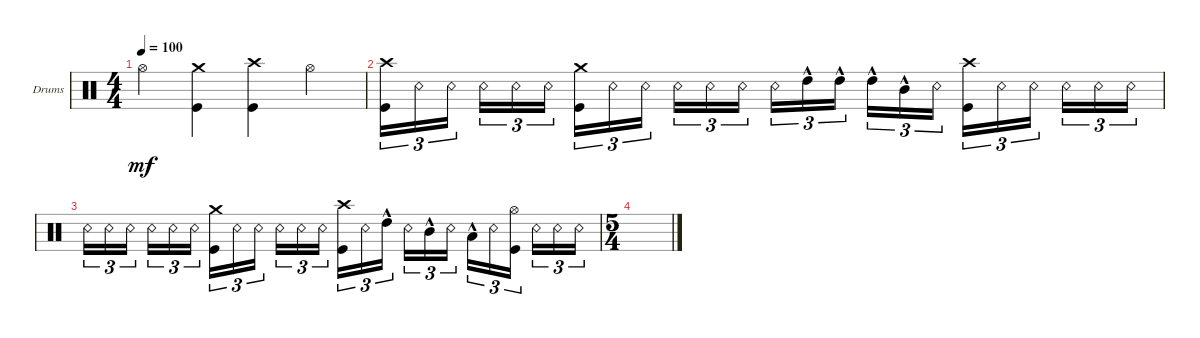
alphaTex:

\defaultSystemsLayout 4
\bracketExtendMode groupsimilarinstruments
\firstSystemTrackNameOrientation horizontal
\otherSystemsTrackNameOrientation horizontal
\track ("Drumkit" "Drums") {instrument percussion}
\staff {score}
\articulation defaults
\ts (4 4)
\tempo 100
\clef neutral
\ks c "Hi-Hat (open)".4{dy mf}
("Kick (hit)" "Crash medium (hit)").4 ("Crash high (hit)" "Kick (hit)").4 "Hi-Hat (open)".4 |
("Kick (hit)" "Crash high (hit)").16{tu (3 2)} "Snare (rim shot)".16{tu (3 2)} "Snare (rim shot)".16{tu (3 2)} "Snare (rim shot)".16{tu (3 2)} "Snare (rim shot)".16{tu (3 2)} "Snare (rim shot)".16{tu (3 2)} ("Crash medium (hit)" "Kick (hit)").16{tu (3 2)} "Snare (rim shot)".16{tu (3 2)} "Snare (rim shot)".16{tu (3 2)} "Snare (rim shot)".16{tu (3 2)} "Snare (rim shot)".16{tu (3 2)} "Snare (rim shot)".16{tu (3 2)} "Snare (rim shot)".16{tu (3 2)} "High Tom (hit)"{hac}.16{tu (3 2)} "High Tom (hit)"{hac}.16{tu (3 2)} "High Tom (hit)"{hac}.16{tu (3 2)} "Mid Tom (hit)"{hac}.16{tu (3 2)} "Snare (rim shot)".16{tu (3 2)} ("Kick (hit)" "Crash high (hit)").16{tu (3 2)} "Snare (rim shot)".16{tu (3 2)} "Snare (rim shot)".16{tu (3 2)} "Snare (rim shot)".16{tu (3 2)} "Snare (rim shot)".16{tu (3 2)} "Snare (rim shot)".16{tu (3 2)} |
"Snare (rim shot)".16{tu (3 2)} "Snare (rim shot)".16{tu (3 2)} "Snare (rim shot)".16{tu (3 2)} "Snare (rim shot)".16{tu (3 2)} "Snare (rim shot)".16{tu (3 2)} "Snare (rim shot)".16{tu (3 2)} ("Crash medium (hit)" "Kick (hit)").16{tu (3 2)} "Snare (rim shot)".16{tu (3 2)} "Snare (rim shot)".16{tu (3 2)} "Snare (rim shot)".16{tu (3 2)} "Snare (rim shot)".16{tu (3 2)} "Snare (rim shot)".16{tu (3 2)} ("Kick (hit)" "Crash high (hit)").16{tu (3 2)} "Snare (rim shot)".16{tu (3 2)} "High Tom (hit)"{hac}.16{tu (3 2)} "Snare (rim shot)".16{tu (3 2)} "Mid Tom (hit)"{hac}.16{tu (3 2)} "Snare (rim shot)".16{tu (3 2)} "Low Tom (hit)"{hac}.16{tu (3 2)} "Snare (rim shot)".16{tu (3 2)} ("Kick (hit)" "Hi-Hat (open)").16{tu (3 2)} "Snare (rim shot)".16{tu (3 2)} "Snare (rim shot)".16{tu (3 2)} "Snare (rim shot)".16{tu (3 2)} |
\ts (5 4)
